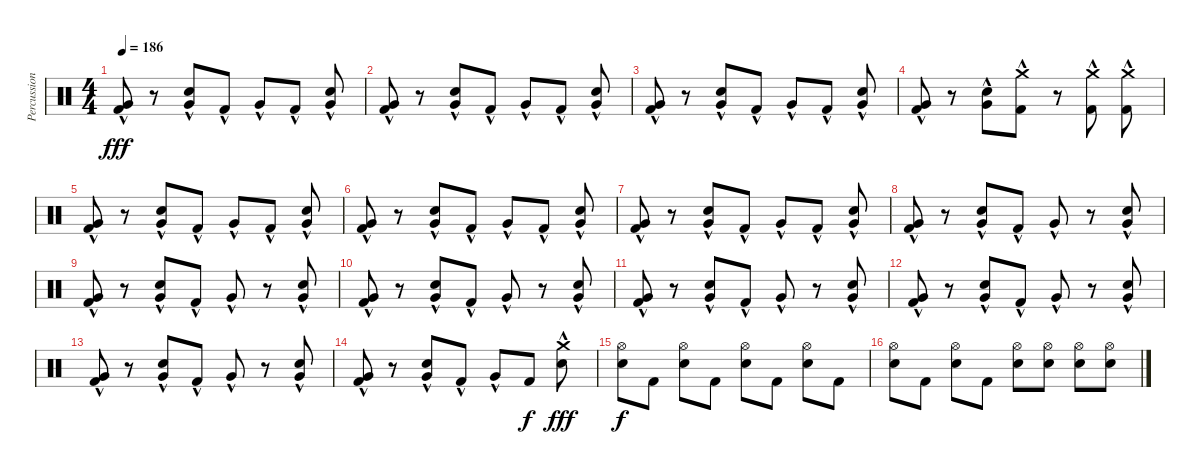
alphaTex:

\track ("Percussion" "Percussion") {instrument percussion}
\staff {score}
\articulation defaults
\ts (4 4)
\tempo 186
\clef neutral
\ks c
("Kick (hit) 2"{hac} "Very Low Tom (hit)"{hac}).8{dy fff} r.8 ("Electric Snare (hit)"{hac} "Very Low Tom (hit)"{hac}).8 "Kick (hit) 2"{hac}.8 "Very Low Tom (hit)"{hac}.8 "Kick (hit) 2"{hac}.8 ("Electric Snare (hit)"{hac} "Very Low Tom (hit)"{hac}).8 |
("Kick (hit) 2"{hac} "Very Low Tom (hit)"{hac}).8 r.8 ("Electric Snare (hit)"{hac} "Very Low Tom (hit)"{hac}).8 "Kick (hit) 2"{hac}.8 "Very Low Tom (hit)"{hac}.8 "Kick (hit) 2"{hac}.8 ("Electric Snare (hit)"{hac} "Very Low Tom (hit)"{hac}).8 |
("Kick (hit) 2"{hac} "Very Low Tom (hit)"{hac}).8 r.8 ("Electric Snare (hit)"{hac} "Very Low Tom (hit)"{hac}).8 "Kick (hit) 2"{hac}.8 "Very Low Tom (hit)"{hac}.8 "Kick (hit) 2"{hac}.8 ("Electric Snare (hit)"{hac} "Very Low Tom (hit)"{hac}).8 |
("Kick (hit) 2"{hac} "Very Low Tom (hit)"{hac}).8 r.8 ("Electric Snare (hit)"{hac} "Very Low Tom (hit)"{hac}).8 ("Kick (hit) 2"{hac} "Crash medium (hit)").8 r.8 ("Kick (hit) 2"{hac} "Crash medium (hit)").8 ("Kick (hit) 2"{hac} "Crash medium (hit)"{hac}).8 |
("Kick (hit) 2"{hac} "Very Low Tom (hit)"{hac}).8 r.8 ("Electric Snare (hit)"{hac} "Very Low Tom (hit)"{hac}).8 "Kick (hit) 2"{hac}.8 "Very Low Tom (hit)"{hac}.8 "Kick (hit) 2"{hac}.8 ("Electric Snare (hit)"{hac} "Very Low Tom (hit)"{hac}).8 |
("Kick (hit) 2"{hac} "Very Low Tom (hit)"{hac}).8 r.8 ("Electric Snare (hit)"{hac} "Very Low Tom (hit)"{hac}).8 "Kick (hit) 2"{hac}.8 "Very Low Tom (hit)"{hac}.8 "Kick (hit) 2"{hac}.8 ("Electric Snare (hit)"{hac} "Very Low Tom (hit)"{hac}).8 |
("Kick (hit) 2"{hac} "Very Low Tom (hit)"{hac}).8 r.8 ("Electric Snare (hit)"{hac} "Very Low Tom (hit)"{hac}).8 "Kick (hit) 2"{hac}.8 "Very Low Tom (hit)"{hac}.8 "Kick (hit) 2"{hac}.8 ("Electric Snare (hit)"{hac} "Very Low Tom (hit)"{hac}).8 |
("Kick (hit) 2"{hac} "Very Low Tom (hit)"{hac}).8 r.8 ("Electric Snare (hit)"{hac} "Very Low Tom (hit)"{hac}).8 "Kick (hit) 2"{hac}.8 "Very Low Tom (hit)"{hac}.8 r.8 ("Electric Snare (hit)"{hac} "Very Low Tom (hit)"{hac}).8 |
("Kick (hit) 2"{hac} "Very Low Tom (hit)"{hac}).8 r.8 ("Electric Snare (hit)"{hac} "Very Low Tom (hit)"{hac}).8 "Kick (hit) 2"{hac}.8 "Very Low Tom (hit)"{hac}.8 r.8 ("Electric Snare (hit)"{hac} "Very Low Tom (hit)"{hac}).8 |
("Kick (hit) 2"{hac} "Very Low Tom (hit)"{hac}).8 r.8 ("Electric Snare (hit)"{hac} "Very Low Tom (hit)"{hac}).8 "Kick (hit) 2"{hac}.8 "Very Low Tom (hit)"{hac}.8 r.8 ("Electric Snare (hit)"{hac} "Very Low Tom (hit)"{hac}).8 |
("Kick (hit) 2"{hac} "Very Low Tom (hit)"{hac}).8 r.8 ("Electric Snare (hit)"{hac} "Very Low Tom (hit)"{hac}).8 "Kick (hit) 2"{hac}.8 "Very Low Tom (hit)"{hac}.8 r.8 ("Electric Snare (hit)"{hac} "Very Low Tom (hit)"{hac}).8 |
("Kick (hit) 2"{hac} "Very Low Tom (hit)"{hac}).8 r.8 ("Electric Snare (hit)"{hac} "Very Low Tom (hit)"{hac}).8 "Kick (hit) 2"{hac}.8 "Very Low Tom (hit)"{hac}.8 r.8 ("Electric Snare (hit)"{hac} "Very Low Tom (hit)"{hac}).8 |
("Kick (hit) 2"{hac} "Very Low Tom (hit)"{hac}).8 r.8 ("Electric Snare (hit)"{hac} "Very Low Tom (hit)"{hac}).8 "Kick (hit) 2"{hac}.8 "Very Low Tom (hit)"{hac}.8 r.8 ("Electric Snare (hit)"{hac} "Very Low Tom (hit)"{hac}).8 |
("Kick (hit) 2"{hac} "Very Low Tom (hit)"{hac}).8 r.8 ("Electric Snare (hit)"{hac} "Very Low Tom (hit)"{hac}).8 "Kick (hit) 2"{hac}.8 "Very Low Tom (hit)"{hac}.8 "Kick (hit) 2".8{dy f} ("Electric Snare (hit)"{hac} "Crash medium (hit)"{hac}).8{dy fff} |
("Hi-Hat (open)" "Electric Snare (hit)").8{dy f} "Kick (hit) 2".8 ("Hi-Hat (open)" "Electric Snare (hit)").8 "Kick (hit) 2".8 ("Hi-Hat (open)" "Electric Snare (hit)").8 "Kick (hit) 2".8 ("Hi-Hat (open)" "Electric Snare (hit)").8 "Kick (hit) 2".8 |
("Hi-Hat (open)" "Electric Snare (hit)").8 "Kick (hit) 2".8 ("Hi-Hat (open)" "Electric Snare (hit)").8 "Kick (hit) 2".8 ("Hi-Hat (open)" "Electric Snare (hit)").8 ("Hi-Hat (open)" "Electric Snare (hit)").8 ("Hi-Hat (open)" "Electric Snare (hit)").8 ("Hi-Hat (open)" "Electric Snare (hit)").8
